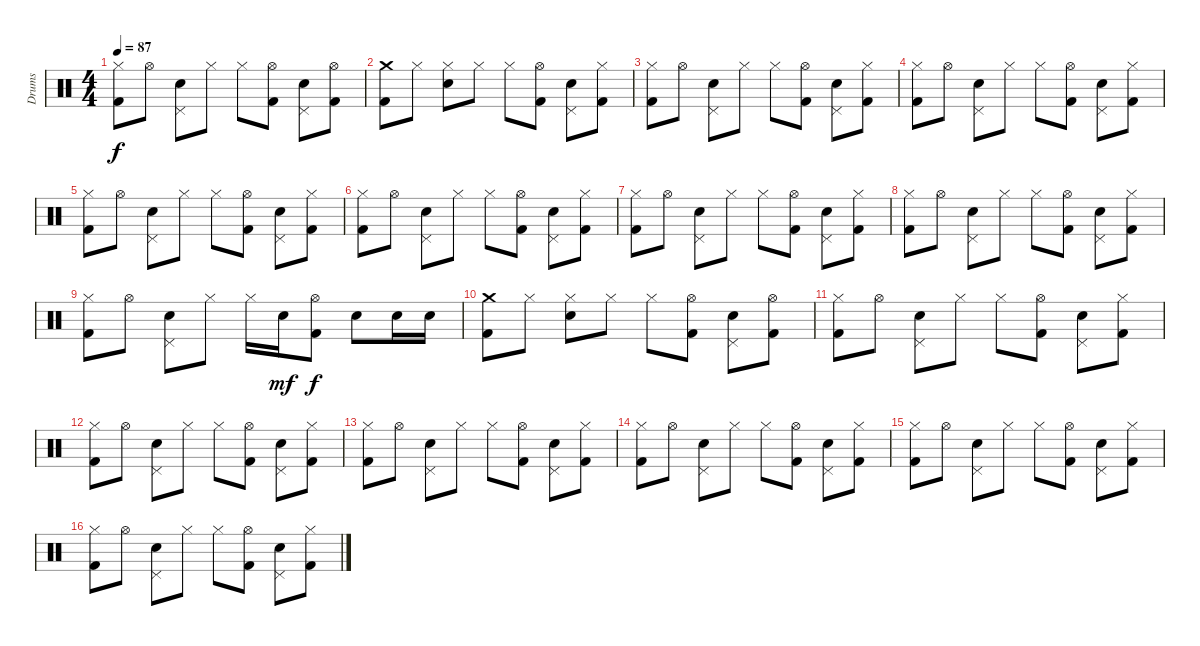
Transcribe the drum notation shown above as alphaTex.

\track ("Drums" "Drums") {instrument percussion}
\staff {score}
\articulation defaults
\ts (4 4)
\tempo 87
\clef neutral
\ks c
("Hi-Hat (closed)" "Kick (hit) 2").8{dy f} "Hi-Hat (open)".8 ("Pedal Hi-Hat (hit)" "Electric Snare (hit)").8 "Hi-Hat (closed)".8 "Hi-Hat (closed)".8 ("Hi-Hat (open)" "Kick (hit) 2").8 ("Pedal Hi-Hat (hit)" "Electric Snare (hit)").8 ("Hi-Hat (open)" "Kick (hit) 2").8 |
("Crash medium (hit)" "Kick (hit) 2").8 "Hi-Hat (closed)".8 ("Hi-Hat (closed)" "Electric Snare (hit)").8 "Hi-Hat (closed)".8 "Hi-Hat (closed)".8 ("Hi-Hat (open)" "Kick (hit) 2").8 ("Pedal Hi-Hat (hit)" "Electric Snare (hit)").8 ("Hi-Hat (closed)" "Kick (hit) 2").8 |
("Hi-Hat (closed)" "Kick (hit) 2").8 "Hi-Hat (open)".8 ("Pedal Hi-Hat (hit)" "Electric Snare (hit)").8 "Hi-Hat (closed)".8 "Hi-Hat (closed)".8 ("Hi-Hat (open)" "Kick (hit) 2").8 ("Pedal Hi-Hat (hit)" "Electric Snare (hit)").8 ("Hi-Hat (closed)" "Kick (hit) 2").8 |
("Hi-Hat (closed)" "Kick (hit) 2").8 "Hi-Hat (open)".8 ("Pedal Hi-Hat (hit)" "Electric Snare (hit)").8 "Hi-Hat (closed)".8 "Hi-Hat (closed)".8 ("Hi-Hat (open)" "Kick (hit) 2").8 ("Pedal Hi-Hat (hit)" "Electric Snare (hit)").8 ("Hi-Hat (closed)" "Kick (hit) 2").8 |
("Hi-Hat (closed)" "Kick (hit) 2").8 "Hi-Hat (open)".8 ("Pedal Hi-Hat (hit)" "Electric Snare (hit)").8 "Hi-Hat (closed)".8 "Hi-Hat (closed)".8 ("Hi-Hat (open)" "Kick (hit) 2").8 ("Pedal Hi-Hat (hit)" "Electric Snare (hit)").8 ("Hi-Hat (closed)" "Kick (hit) 2").8 |
("Hi-Hat (closed)" "Kick (hit) 2").8 "Hi-Hat (open)".8 ("Pedal Hi-Hat (hit)" "Electric Snare (hit)").8 "Hi-Hat (closed)".8 "Hi-Hat (closed)".8 ("Hi-Hat (open)" "Kick (hit) 2").8 ("Pedal Hi-Hat (hit)" "Electric Snare (hit)").8 ("Hi-Hat (closed)" "Kick (hit) 2").8 |
("Hi-Hat (closed)" "Kick (hit) 2").8 "Hi-Hat (open)".8 ("Pedal Hi-Hat (hit)" "Electric Snare (hit)").8 "Hi-Hat (closed)".8 "Hi-Hat (closed)".8 ("Hi-Hat (open)" "Kick (hit) 2").8 ("Pedal Hi-Hat (hit)" "Electric Snare (hit)").8 ("Hi-Hat (closed)" "Kick (hit) 2").8 |
("Hi-Hat (closed)" "Kick (hit) 2").8 "Hi-Hat (open)".8 ("Pedal Hi-Hat (hit)" "Electric Snare (hit)").8 "Hi-Hat (closed)".8 "Hi-Hat (closed)".8 ("Hi-Hat (open)" "Kick (hit) 2").8 ("Pedal Hi-Hat (hit)" "Electric Snare (hit)").8 ("Hi-Hat (closed)" "Kick (hit) 2").8 |
("Hi-Hat (closed)" "Kick (hit) 2").8 "Hi-Hat (open)".8 ("Pedal Hi-Hat (hit)" "Electric Snare (hit)").8 "Hi-Hat (closed)".8 "Hi-Hat (closed)".16 "Electric Snare (hit)".16{dy mf} ("Hi-Hat (open)" "Kick (hit) 2").8{dy f} "Electric Snare (hit)".8 "Electric Snare (hit)".16 "Electric Snare (hit)".16 |
("Crash medium (hit)" "Kick (hit) 2").8 "Hi-Hat (closed)".8 ("Hi-Hat (closed)" "Electric Snare (hit)").8 "Hi-Hat (closed)".8 "Hi-Hat (closed)".8 ("Hi-Hat (open)" "Kick (hit) 2").8 ("Pedal Hi-Hat (hit)" "Electric Snare (hit)").8 ("Hi-Hat (open)" "Kick (hit) 2").8 |
("Hi-Hat (closed)" "Kick (hit) 2").8 "Hi-Hat (open)".8 ("Pedal Hi-Hat (hit)" "Electric Snare (hit)").8 "Hi-Hat (closed)".8 "Hi-Hat (closed)".8 ("Hi-Hat (open)" "Kick (hit) 2").8 ("Pedal Hi-Hat (hit)" "Electric Snare (hit)").8 ("Hi-Hat (closed)" "Kick (hit) 2").8 |
("Hi-Hat (closed)" "Kick (hit) 2").8 "Hi-Hat (open)".8 ("Pedal Hi-Hat (hit)" "Electric Snare (hit)").8 "Hi-Hat (closed)".8 "Hi-Hat (closed)".8 ("Hi-Hat (open)" "Kick (hit) 2").8 ("Pedal Hi-Hat (hit)" "Electric Snare (hit)").8 ("Hi-Hat (closed)" "Kick (hit) 2").8 |
("Hi-Hat (closed)" "Kick (hit) 2").8 "Hi-Hat (open)".8 ("Pedal Hi-Hat (hit)" "Electric Snare (hit)").8 "Hi-Hat (closed)".8 "Hi-Hat (closed)".8 ("Hi-Hat (open)" "Kick (hit) 2").8 ("Pedal Hi-Hat (hit)" "Electric Snare (hit)").8 ("Hi-Hat (closed)" "Kick (hit) 2").8 |
("Hi-Hat (closed)" "Kick (hit) 2").8 "Hi-Hat (open)".8 ("Pedal Hi-Hat (hit)" "Electric Snare (hit)").8 "Hi-Hat (closed)".8 "Hi-Hat (closed)".8 ("Hi-Hat (open)" "Kick (hit) 2").8 ("Pedal Hi-Hat (hit)" "Electric Snare (hit)").8 ("Hi-Hat (closed)" "Kick (hit) 2").8 |
("Hi-Hat (closed)" "Kick (hit) 2").8 "Hi-Hat (open)".8 ("Pedal Hi-Hat (hit)" "Electric Snare (hit)").8 "Hi-Hat (closed)".8 "Hi-Hat (closed)".8 ("Hi-Hat (open)" "Kick (hit) 2").8 ("Pedal Hi-Hat (hit)" "Electric Snare (hit)").8 ("Hi-Hat (closed)" "Kick (hit) 2").8 |
("Hi-Hat (closed)" "Kick (hit) 2").8 "Hi-Hat (open)".8 ("Pedal Hi-Hat (hit)" "Electric Snare (hit)").8 "Hi-Hat (closed)".8 "Hi-Hat (closed)".8 ("Hi-Hat (open)" "Kick (hit) 2").8 ("Pedal Hi-Hat (hit)" "Electric Snare (hit)").8 ("Hi-Hat (closed)" "Kick (hit) 2").8
